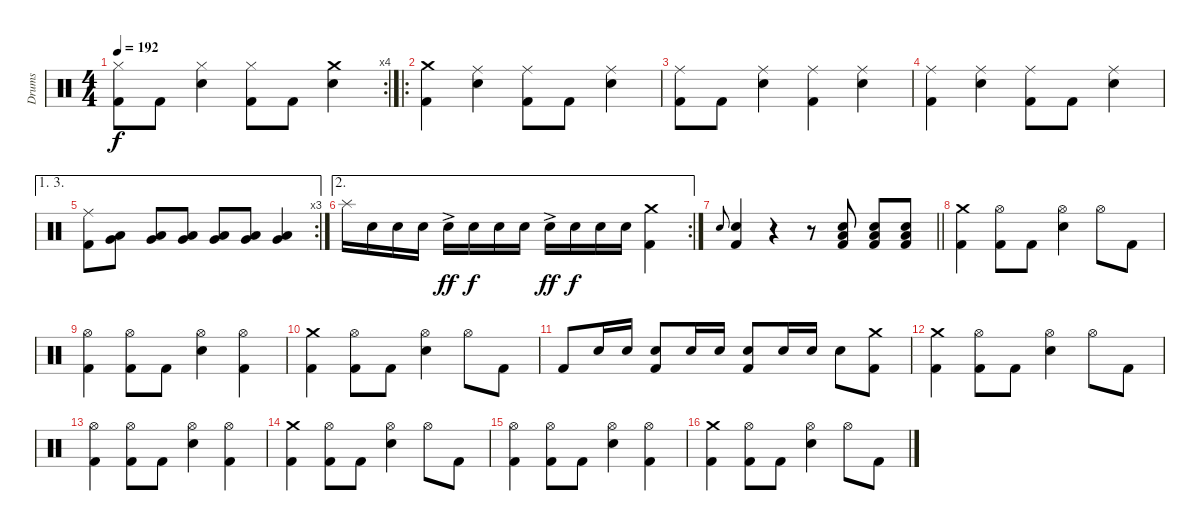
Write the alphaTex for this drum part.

\track ("Drums" "Drums") {instrument percussion}
\staff {score}
\articulation defaults
\rc 4
\ts (4 4)
\tempo 192
\clef neutral
\ks c
("Hi-Hat (closed)" "Kick (hit) 2").8{dy f} "Kick (hit) 2".8 ("Hi-Hat (closed)" "Electric Snare (hit)").4 ("Hi-Hat (closed)" "Kick (hit) 2").8 "Kick (hit) 2".8 ("Crash medium (hit)" "Electric Snare (hit)").4 |
\ro
("Crash medium (hit)" "Kick (hit) 2").4 ("Ride (middle)" "Electric Snare (hit)").4 ("Ride (middle)" "Kick (hit) 2").8 "Kick (hit) 2".8 ("Ride (middle)" "Electric Snare (hit)").4 |
("Ride (middle)" "Kick (hit) 2").8 "Kick (hit) 2".8 ("Ride (middle)" "Electric Snare (hit)").4 ("Ride (middle)" "Kick (hit) 2").4 ("Ride (middle)" "Electric Snare (hit)").4 |
("Ride (middle)" "Kick (hit) 2").4 ("Ride (middle)" "Electric Snare (hit)").4 ("Ride (middle)" "Kick (hit) 2").8 "Kick (hit) 2".8 ("Ride (middle)" "Electric Snare (hit)").4 |
\ae (1 3)
\rc 3
("Ride (middle)" "Kick (hit) 2").8 ("Very Low Tom (hit)" "Low Floor Tom (hit)").8 ("Very Low Tom (hit)" "Low Floor Tom (hit)").8 ("Very Low Tom (hit)" "Low Floor Tom (hit)").8 ("Very Low Tom (hit)" "Low Floor Tom (hit)").8 ("Very Low Tom (hit)" "Low Floor Tom (hit)").8 ("Very Low Tom (hit)" "Low Floor Tom (hit)").4 |
\ae 2
\rc 2 "Splash (hit)".16 "Electric Snare (hit)".16 "Electric Snare (hit)".16 "Electric Snare (hit)".16 "Electric Snare (hit)"{ac}.16{dy ff} "Electric Snare (hit)".16{dy f} "Electric Snare (hit)".16 "Electric Snare (hit)".16 "Electric Snare (hit)"{ac}.16{dy ff} "Electric Snare (hit)".16{dy f} "Electric Snare (hit)".16 "Electric Snare (hit)".16
("Crash medium (hit)" "Kick (hit) 2").4 |
\barLineRight lightlight "Electric Snare (hit)".8{gr onbeat}
("Electric Snare (hit)" "Kick (hit) 2").4 r.4 r.8 ("Low Tom (hit)" "Electric Snare (hit)" "Kick (hit) 2").8 ("Low Tom (hit)" "Electric Snare (hit)" "Kick (hit) 2").8 ("Low Tom (hit)" "Electric Snare (hit)" "Kick (hit) 2").8 |
("Crash medium (hit)" "Kick (hit) 2").4 ("Hi-Hat (open)" "Kick (hit) 2").8 "Kick (hit) 2".8 ("Hi-Hat (open)" "Electric Snare (hit)").4 "Hi-Hat (open)".8 "Kick (hit) 2".8 |
("Hi-Hat (open)" "Kick (hit) 2").4 ("Hi-Hat (open)" "Kick (hit) 2").8 "Kick (hit) 2".8 ("Hi-Hat (open)" "Electric Snare (hit)").4 ("Hi-Hat (open)" "Kick (hit) 2").4 |
("Crash medium (hit)" "Kick (hit) 2").4 ("Hi-Hat (open)" "Kick (hit) 2").8 "Kick (hit) 2".8 ("Hi-Hat (open)" "Electric Snare (hit)").4 "Hi-Hat (open)".8 "Kick (hit) 2".8 |
"Kick (hit) 2".8 "Electric Snare (hit)".16 "Electric Snare (hit)".16 ("Electric Snare (hit)" "Kick (hit) 2").8 "Electric Snare (hit)".16 "Electric Snare (hit)".16 ("Electric Snare (hit)" "Kick (hit) 2").8 "Electric Snare (hit)".16 "Electric Snare (hit)".16 "Electric Snare (hit)".8 ("Crash medium (hit)" "Kick (hit) 2").8 |
("Crash medium (hit)" "Kick (hit) 2").4 ("Hi-Hat (open)" "Kick (hit) 2").8 "Kick (hit) 2".8 ("Hi-Hat (open)" "Electric Snare (hit)").4 "Hi-Hat (open)".8 "Kick (hit) 2".8 |
("Hi-Hat (open)" "Kick (hit) 2").4 ("Hi-Hat (open)" "Kick (hit) 2").8 "Kick (hit) 2".8 ("Hi-Hat (open)" "Electric Snare (hit)").4 ("Hi-Hat (open)" "Kick (hit) 2").4 |
("Crash medium (hit)" "Kick (hit) 2").4 ("Hi-Hat (open)" "Kick (hit) 2").8 "Kick (hit) 2".8 ("Hi-Hat (open)" "Electric Snare (hit)").4 "Hi-Hat (open)".8 "Kick (hit) 2".8 |
("Hi-Hat (open)" "Kick (hit) 2").4 ("Hi-Hat (open)" "Kick (hit) 2").8 "Kick (hit) 2".8 ("Hi-Hat (open)" "Electric Snare (hit)").4 ("Hi-Hat (open)" "Kick (hit) 2").4 |
("Crash medium (hit)" "Kick (hit) 2").4 ("Hi-Hat (open)" "Kick (hit) 2").8 "Kick (hit) 2".8 ("Hi-Hat (open)" "Electric Snare (hit)").4 "Hi-Hat (open)".8 "Kick (hit) 2".8
